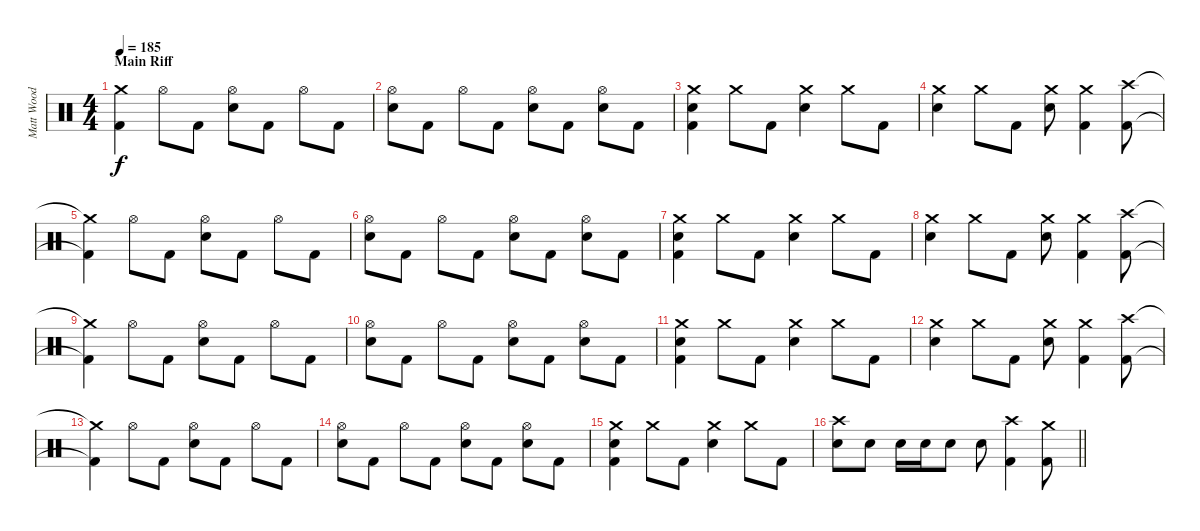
\track ("Matt Wood" "Matt Wood") {instrument percussion}
\staff {score}
\articulation defaults
\ts (4 4)
\section ("" "Main Riff")
\tempo 185
\clef neutral
\ks c
("Crash medium (hit)" "Kick (hit) 2").4{dy f} "Hi-Hat (open)".8 "Kick (hit) 2".8 ("Hi-Hat (open)" "Snare (hit) 2").8 "Kick (hit) 2".8 "Hi-Hat (open)".8 "Kick (hit) 2".8 |
("Hi-Hat (open)" "Snare (hit) 2").8 "Kick (hit) 2".8 "Hi-Hat (open)".8 "Kick (hit) 2".8 ("Hi-Hat (open)" "Snare (hit) 2").8 "Kick (hit) 2".8 ("Hi-Hat (open)" "Snare (hit) 2").8 "Kick (hit) 2".8 |
("Crash medium (hit)" "Snare (hit) 2" "Kick (hit) 2").4 "Crash medium (hit)".8 "Kick (hit) 2".8 ("Crash medium (hit)" "Snare (hit) 2").4 "Crash medium (hit)".8 "Kick (hit) 2".8 |
("Crash medium (hit)" "Snare (hit) 2").4 "Crash medium (hit)".8 "Kick (hit) 2".8 ("Crash medium (hit)" "Snare (hit) 2").8 ("Crash medium (hit)" "Kick (hit) 2").4 ("Crash high (hit)" "Kick (hit) 2").8 |
("Crash medium (hit)"{t} "Kick (hit) 2"{t}).4 "Hi-Hat (open)".8 "Kick (hit) 2".8 ("Hi-Hat (open)" "Snare (hit) 2").8 "Kick (hit) 2".8 "Hi-Hat (open)".8 "Kick (hit) 2".8 |
("Hi-Hat (open)" "Snare (hit) 2").8 "Kick (hit) 2".8 "Hi-Hat (open)".8 "Kick (hit) 2".8 ("Hi-Hat (open)" "Snare (hit) 2").8 "Kick (hit) 2".8 ("Hi-Hat (open)" "Snare (hit) 2").8 "Kick (hit) 2".8 |
("Crash medium (hit)" "Snare (hit) 2" "Kick (hit) 2").4 "Crash medium (hit)".8 "Kick (hit) 2".8 ("Crash medium (hit)" "Snare (hit) 2").4 "Crash medium (hit)".8 "Kick (hit) 2".8 |
("Crash medium (hit)" "Snare (hit) 2").4 "Crash medium (hit)".8 "Kick (hit) 2".8 ("Crash medium (hit)" "Snare (hit) 2").8 ("Crash medium (hit)" "Kick (hit) 2").4 ("Crash high (hit)" "Kick (hit) 2").8 |
("Crash medium (hit)"{t} "Kick (hit) 2"{t}).4 "Hi-Hat (open)".8 "Kick (hit) 2".8 ("Hi-Hat (open)" "Snare (hit) 2").8 "Kick (hit) 2".8 "Hi-Hat (open)".8 "Kick (hit) 2".8 |
("Hi-Hat (open)" "Snare (hit) 2").8 "Kick (hit) 2".8 "Hi-Hat (open)".8 "Kick (hit) 2".8 ("Hi-Hat (open)" "Snare (hit) 2").8 "Kick (hit) 2".8 ("Hi-Hat (open)" "Snare (hit) 2").8 "Kick (hit) 2".8 |
("Crash medium (hit)" "Snare (hit) 2" "Kick (hit) 2").4 "Crash medium (hit)".8 "Kick (hit) 2".8 ("Crash medium (hit)" "Snare (hit) 2").4 "Crash medium (hit)".8 "Kick (hit) 2".8 |
("Crash medium (hit)" "Snare (hit) 2").4 "Crash medium (hit)".8 "Kick (hit) 2".8 ("Crash medium (hit)" "Snare (hit) 2").8 ("Crash medium (hit)" "Kick (hit) 2").4 ("Crash high (hit)" "Kick (hit) 2").8 |
("Crash medium (hit)"{t} "Kick (hit) 2"{t}).4 "Hi-Hat (open)".8 "Kick (hit) 2".8 ("Hi-Hat (open)" "Snare (hit) 2").8 "Kick (hit) 2".8 "Hi-Hat (open)".8 "Kick (hit) 2".8 |
("Hi-Hat (open)" "Snare (hit) 2").8 "Kick (hit) 2".8 "Hi-Hat (open)".8 "Kick (hit) 2".8 ("Hi-Hat (open)" "Snare (hit) 2").8 "Kick (hit) 2".8 ("Hi-Hat (open)" "Snare (hit) 2").8 "Kick (hit) 2".8 |
("Crash medium (hit)" "Snare (hit) 2" "Kick (hit) 2").4 "Crash medium (hit)".8 "Kick (hit) 2".8 ("Crash medium (hit)" "Snare (hit) 2").4 "Crash medium (hit)".8 "Kick (hit) 2".8 |
\barLineRight lightlight
("Crash high (hit)" "Snare (hit) 2").8 "Snare (hit) 2".8 "Snare (hit) 2".16 "Snare (hit) 2".16 "Snare (hit) 2".8 "Snare (hit) 2".8 ("Crash high (hit)" "Kick (hit) 2").4 ("Crash medium (hit)" "Kick (hit) 2").8
